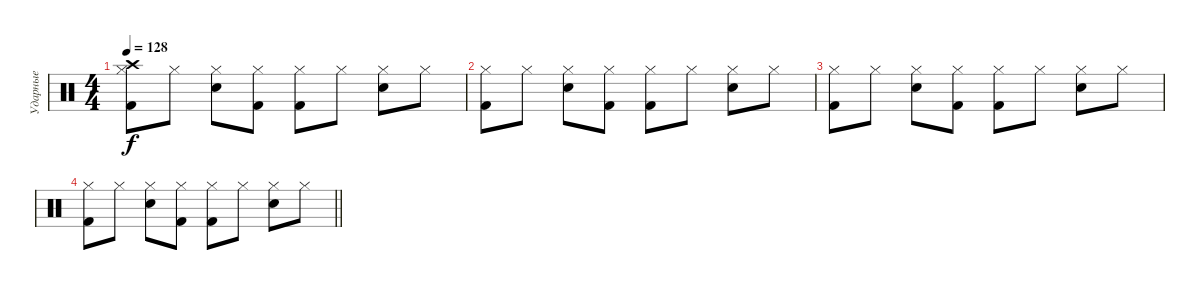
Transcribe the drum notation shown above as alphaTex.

\track ("Ударные" "Ударные") {instrument percussion}
\staff
\articulation defaults
\ts (4 4)
\section ("" "")
\tempo 128
\clef neutral
\ks c
("Crash high (hit)" "Hi-Hat (closed)" "Kick (hit) 2").8{dy f} "Hi-Hat (closed)".8 ("Hi-Hat (closed)" "Snare (hit) 2").8 ("Hi-Hat (closed)" "Kick (hit) 2").8 ("Hi-Hat (closed)" "Kick (hit) 2").8 "Hi-Hat (closed)".8 ("Hi-Hat (closed)" "Snare (hit) 2").8 "Hi-Hat (closed)".8 |
("Hi-Hat (closed)" "Kick (hit) 2").8 "Hi-Hat (closed)".8 ("Hi-Hat (closed)" "Snare (hit) 2").8 ("Hi-Hat (closed)" "Kick (hit) 2").8 ("Hi-Hat (closed)" "Kick (hit) 2").8 "Hi-Hat (closed)".8 ("Hi-Hat (closed)" "Snare (hit) 2").8 "Hi-Hat (closed)".8 |
("Hi-Hat (closed)" "Kick (hit) 2").8 "Hi-Hat (closed)".8 ("Hi-Hat (closed)" "Snare (hit) 2").8 ("Hi-Hat (closed)" "Kick (hit) 2").8 ("Hi-Hat (closed)" "Kick (hit) 2").8 "Hi-Hat (closed)".8 ("Hi-Hat (closed)" "Snare (hit) 2").8 "Hi-Hat (closed)".8 |
\barLineRight lightlight
("Hi-Hat (closed)" "Kick (hit) 2").8 "Hi-Hat (closed)".8 ("Hi-Hat (closed)" "Snare (hit) 2").8 ("Hi-Hat (closed)" "Kick (hit) 2").8 ("Hi-Hat (closed)" "Kick (hit) 2").8 "Hi-Hat (closed)".8 ("Hi-Hat (closed)" "Snare (hit) 2").8 "Hi-Hat (closed)".8
